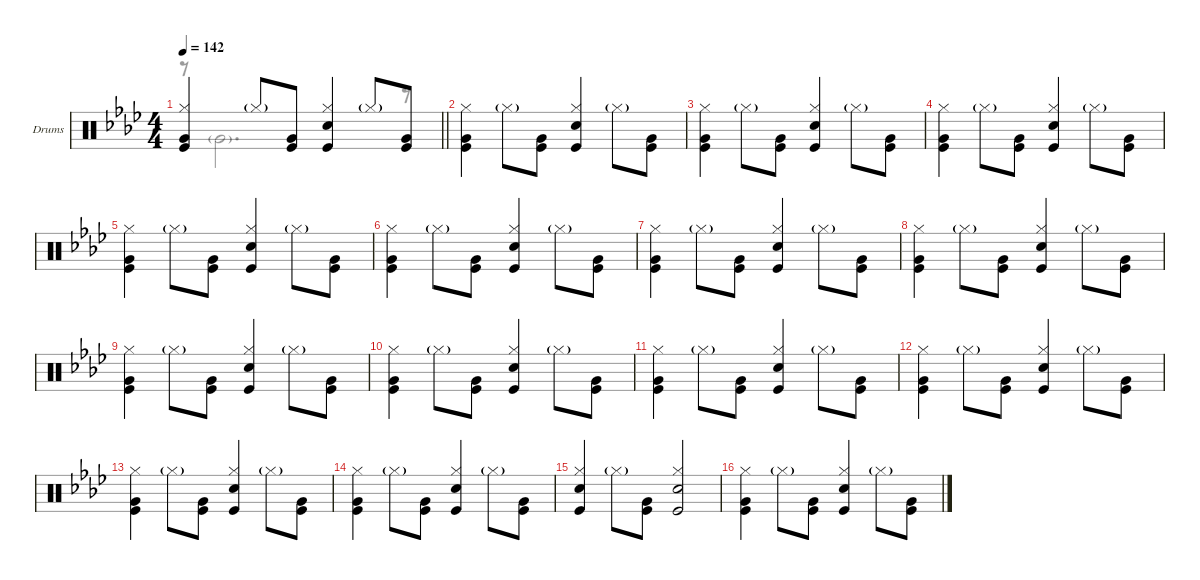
\defaultSystemsLayout 4
\hideDynamics
\bracketExtendMode groupsimilarinstruments
\firstSystemTrackNameOrientation horizontal
\otherSystemsTrackNameOrientation horizontal
\track ("Drumkit" "Drums") {multiBarRest instrument percussion}
\staff {score}
\articulation defaults
\voice
\ts (4 4)
\tempo 142
\clef neutral
\barLineRight lightlight
\ks ab
("Very Low Tom (hit)" "Kick (hit)" "Hi-Hat (closed)").4{dy fff} "Hi-Hat (closed)"{g}.8 ("Very Low Tom (hit)" "Kick (hit)").8 ("Snare (hit) 2" "Kick (hit)" "Hi-Hat (closed)").4 "Hi-Hat (closed)"{g}.8 ("Very Low Tom (hit)" "Kick (hit)").8 |
("Very Low Tom (hit)" "Kick (hit)" "Hi-Hat (closed)").4 "Hi-Hat (closed)"{g}.8 ("Very Low Tom (hit)" "Kick (hit)").8 ("Snare (hit) 2" "Kick (hit)" "Hi-Hat (closed)").4 "Hi-Hat (closed)"{g}.8 ("Very Low Tom (hit)" "Kick (hit)").8 |
("Very Low Tom (hit)" "Kick (hit)" "Hi-Hat (closed)").4 "Hi-Hat (closed)"{g}.8 ("Very Low Tom (hit)" "Kick (hit)").8 ("Snare (hit) 2" "Kick (hit)" "Hi-Hat (closed)").4 "Hi-Hat (closed)"{g}.8 ("Very Low Tom (hit)" "Kick (hit)").8 |
("Very Low Tom (hit)" "Kick (hit)" "Hi-Hat (closed)").4 "Hi-Hat (closed)"{g}.8 ("Very Low Tom (hit)" "Kick (hit)").8 ("Snare (hit) 2" "Kick (hit)" "Hi-Hat (closed)").4 "Hi-Hat (closed)"{g}.8 ("Very Low Tom (hit)" "Kick (hit)").8 |
("Very Low Tom (hit)" "Kick (hit)" "Hi-Hat (closed)").4 "Hi-Hat (closed)"{g}.8 ("Very Low Tom (hit)" "Kick (hit)").8 ("Snare (hit) 2" "Kick (hit)" "Hi-Hat (closed)").4 "Hi-Hat (closed)"{g}.8 ("Very Low Tom (hit)" "Kick (hit)").8 |
("Very Low Tom (hit)" "Kick (hit)" "Hi-Hat (closed)").4 "Hi-Hat (closed)"{g}.8 ("Very Low Tom (hit)" "Kick (hit)").8 ("Snare (hit) 2" "Kick (hit)" "Hi-Hat (closed)").4 "Hi-Hat (closed)"{g}.8 ("Very Low Tom (hit)" "Kick (hit)").8 |
("Very Low Tom (hit)" "Kick (hit)" "Hi-Hat (closed)").4 "Hi-Hat (closed)"{g}.8 ("Very Low Tom (hit)" "Kick (hit)").8 ("Snare (hit) 2" "Kick (hit)" "Hi-Hat (closed)").4 "Hi-Hat (closed)"{g}.8 ("Very Low Tom (hit)" "Kick (hit)").8 |
("Very Low Tom (hit)" "Kick (hit)" "Hi-Hat (closed)").4 "Hi-Hat (closed)"{g}.8 ("Very Low Tom (hit)" "Kick (hit)").8 ("Snare (hit) 2" "Kick (hit)" "Hi-Hat (closed)").4 "Hi-Hat (closed)"{g}.8 ("Very Low Tom (hit)" "Kick (hit)").8 |
("Very Low Tom (hit)" "Kick (hit)" "Hi-Hat (closed)").4 "Hi-Hat (closed)"{g}.8 ("Very Low Tom (hit)" "Kick (hit)").8 ("Snare (hit) 2" "Kick (hit)" "Hi-Hat (closed)").4 "Hi-Hat (closed)"{g}.8 ("Very Low Tom (hit)" "Kick (hit)").8 |
\scale
0.294118 ("Very Low Tom (hit)" "Kick (hit)" "Hi-Hat (closed)").4 "Hi-Hat (closed)"{g}.8 ("Very Low Tom (hit)" "Kick (hit)").8 ("Snare (hit) 2" "Kick (hit)" "Hi-Hat (closed)").4 "Hi-Hat (closed)"{g}.8 ("Very Low Tom (hit)" "Kick (hit)").8 |
\scale
0.233859 ("Very Low Tom (hit)" "Kick (hit)" "Hi-Hat (closed)").4 "Hi-Hat (closed)"{g}.8 ("Very Low Tom (hit)" "Kick (hit)").8 ("Snare (hit) 2" "Kick (hit)" "Hi-Hat (closed)").4 "Hi-Hat (closed)"{g}.8 ("Very Low Tom (hit)" "Kick (hit)").8 |
\scale
0.233859 ("Very Low Tom (hit)" "Kick (hit)" "Hi-Hat (closed)").4 "Hi-Hat (closed)"{g}.8 ("Very Low Tom (hit)" "Kick (hit)").8 ("Snare (hit) 2" "Kick (hit)" "Hi-Hat (closed)").4 "Hi-Hat (closed)"{g}.8 ("Very Low Tom (hit)" "Kick (hit)").8 |
\scale
0.238164 ("Very Low Tom (hit)" "Kick (hit)" "Hi-Hat (closed)").4 "Hi-Hat (closed)"{g}.8 ("Very Low Tom (hit)" "Kick (hit)").8 ("Snare (hit) 2" "Kick (hit)" "Hi-Hat (closed)").4 "Hi-Hat (closed)"{g}.8 ("Very Low Tom (hit)" "Kick (hit)").8 |
("Very Low Tom (hit)" "Kick (hit)" "Hi-Hat (closed)").4 "Hi-Hat (closed)"{g}.8 ("Very Low Tom (hit)" "Kick (hit)").8 ("Snare (hit) 2" "Kick (hit)" "Hi-Hat (closed)").4 "Hi-Hat (closed)"{g}.8 ("Very Low Tom (hit)" "Kick (hit)").8 |
("Snare (hit) 2" "Kick (hit)" "Hi-Hat (closed)").4 "Hi-Hat (closed)"{g}.8 ("Very Low Tom (hit)" "Kick (hit)").8 ("Snare (hit) 2" "Kick (hit)" "Hi-Hat (closed)").2 |
("Very Low Tom (hit)" "Kick (hit)" "Hi-Hat (closed)").4 "Hi-Hat (closed)"{g}.8 ("Very Low Tom (hit)" "Kick (hit)").8 ("Snare (hit) 2" "Kick (hit)" "Hi-Hat (closed)").4 "Hi-Hat (closed)"{g}.8 ("Very Low Tom (hit)" "Kick (hit)").8
\voice
\clef neutral
\ottava regular
\simile none
\barLineRight lightlight
\ks ab
r.8{dy mf} "Very Low Tom (hit)"{g}.2{d} r.8 |
|
|
|
|
|
|
|
|
\scale
0.294118 |
\scale
0.233859 |
\scale
0.233859 |
\scale
0.238164 |
|
|
